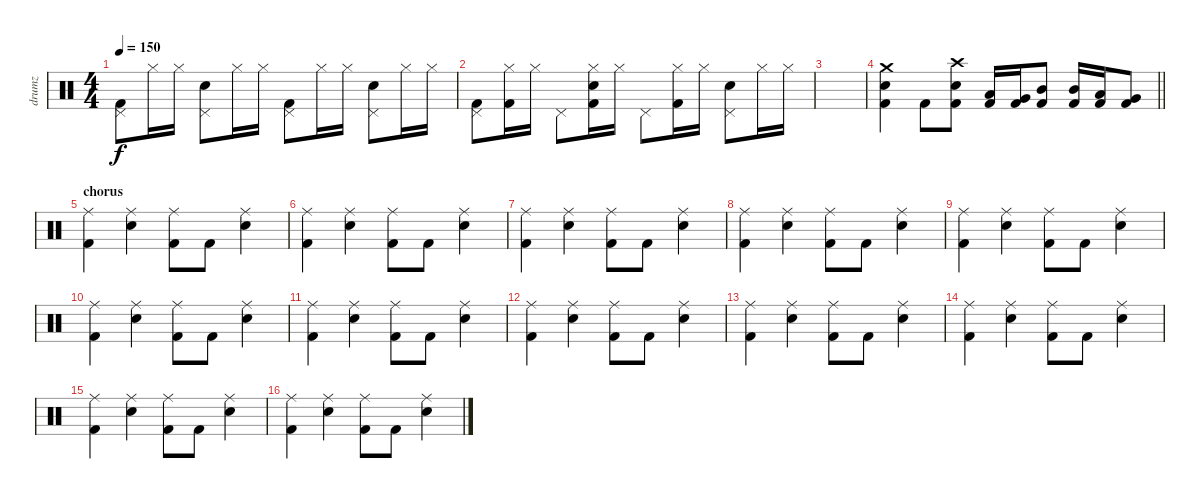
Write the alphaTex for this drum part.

\track ("drumz" "drumz") {instrument percussion}
\staff {score}
\articulation defaults
\ts (4 4)
\tempo 150
\clef neutral
\ks c
("Pedal Hi-Hat (hit)" "Kick (hit) 2").8{dy f} "Hi-Hat (closed)".16 "Hi-Hat (closed)".16 ("Pedal Hi-Hat (hit)" "Electric Snare (hit)").8 "Hi-Hat (closed)".16 "Hi-Hat (closed)".16 ("Pedal Hi-Hat (hit)" "Kick (hit) 2").8 "Hi-Hat (closed)".16 "Hi-Hat (closed)".16 ("Pedal Hi-Hat (hit)" "Electric Snare (hit)").8 "Hi-Hat (closed)".16 "Hi-Hat (closed)".16 |
("Pedal Hi-Hat (hit)" "Kick (hit) 2").8 ("Hi-Hat (closed)" "Kick (hit) 2").16 "Hi-Hat (closed)".16 "Pedal Hi-Hat (hit)".8 ("Hi-Hat (closed)" "Electric Snare (hit)" "Kick (hit) 2").16 "Hi-Hat (closed)".16 "Pedal Hi-Hat (hit)".8 ("Hi-Hat (closed)" "Kick (hit) 2").16 "Hi-Hat (closed)".16 ("Pedal Hi-Hat (hit)" "Electric Snare (hit)").8 "Hi-Hat (closed)".16 "Hi-Hat (closed)".16 |
|
\barLineRight lightlight
("Crash medium (hit)" "Electric Snare (hit)" "Kick (hit) 2").4 "Kick (hit) 2".8 ("Crash high (hit)" "Electric Snare (hit)" "Kick (hit) 2").8 ("Low Tom (hit)" "Kick (hit) 2").16 ("Very Low Tom (hit)" "Kick (hit) 2").16 ("Mid Tom (hit)" "Kick (hit) 2").8 ("Mid Tom (hit)" "Kick (hit) 2").16 ("Low Tom (hit)" "Kick (hit) 2").16 ("Very Low Tom (hit)" "Kick (hit) 2").8 |
\section ("" "chorus")
("Ride (middle)" "Kick (hit) 2").4 ("Ride (middle)" "Electric Snare (hit)").4 ("Ride (middle)" "Kick (hit) 2").8 "Kick (hit) 2".8 ("Ride (middle)" "Electric Snare (hit)").4 |
("Ride (middle)" "Kick (hit) 2").4 ("Ride (middle)" "Electric Snare (hit)").4 ("Ride (middle)" "Kick (hit) 2").8 "Kick (hit) 2".8 ("Ride (middle)" "Electric Snare (hit)").4 |
("Ride (middle)" "Kick (hit) 2").4 ("Ride (middle)" "Electric Snare (hit)").4 ("Ride (middle)" "Kick (hit) 2").8 "Kick (hit) 2".8 ("Ride (middle)" "Electric Snare (hit)").4 |
("Ride (middle)" "Kick (hit) 2").4 ("Ride (middle)" "Electric Snare (hit)").4 ("Ride (middle)" "Kick (hit) 2").8 "Kick (hit) 2".8 ("Ride (middle)" "Electric Snare (hit)").4 |
("Ride (middle)" "Kick (hit) 2").4 ("Ride (middle)" "Electric Snare (hit)").4 ("Ride (middle)" "Kick (hit) 2").8 "Kick (hit) 2".8 ("Ride (middle)" "Electric Snare (hit)").4 |
("Ride (middle)" "Kick (hit) 2").4 ("Ride (middle)" "Electric Snare (hit)").4 ("Ride (middle)" "Kick (hit) 2").8 "Kick (hit) 2".8 ("Ride (middle)" "Electric Snare (hit)").4 |
("Ride (middle)" "Kick (hit) 2").4 ("Ride (middle)" "Electric Snare (hit)").4 ("Ride (middle)" "Kick (hit) 2").8 "Kick (hit) 2".8 ("Ride (middle)" "Electric Snare (hit)").4 |
("Ride (middle)" "Kick (hit) 2").4 ("Ride (middle)" "Electric Snare (hit)").4 ("Ride (middle)" "Kick (hit) 2").8 "Kick (hit) 2".8 ("Ride (middle)" "Electric Snare (hit)").4 |
("Ride (middle)" "Kick (hit) 2").4 ("Ride (middle)" "Electric Snare (hit)").4 ("Ride (middle)" "Kick (hit) 2").8 "Kick (hit) 2".8 ("Ride (middle)" "Electric Snare (hit)").4 |
("Ride (middle)" "Kick (hit) 2").4 ("Ride (middle)" "Electric Snare (hit)").4 ("Ride (middle)" "Kick (hit) 2").8 "Kick (hit) 2".8 ("Ride (middle)" "Electric Snare (hit)").4 |
("Ride (middle)" "Kick (hit) 2").4 ("Ride (middle)" "Electric Snare (hit)").4 ("Ride (middle)" "Kick (hit) 2").8 "Kick (hit) 2".8 ("Ride (middle)" "Electric Snare (hit)").4 |
("Ride (middle)" "Kick (hit) 2").4 ("Ride (middle)" "Electric Snare (hit)").4 ("Ride (middle)" "Kick (hit) 2").8 "Kick (hit) 2".8 ("Ride (middle)" "Electric Snare (hit)").4
